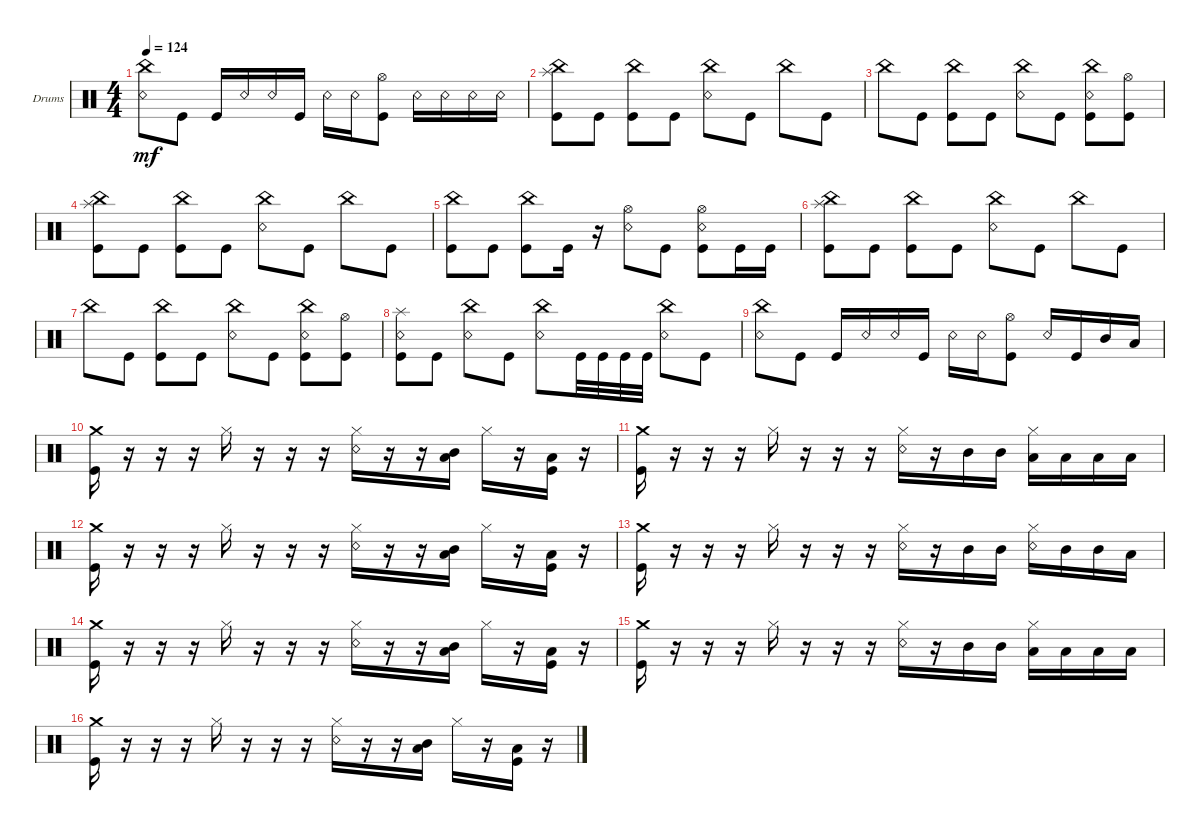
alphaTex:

\defaultSystemsLayout 4
\bracketExtendMode groupsimilarinstruments
\firstSystemTrackNameOrientation horizontal
\otherSystemsTrackNameOrientation horizontal
\track ("Drums" "Drums") {instrument percussion}
\staff {score}
\articulation defaults
\ts (4 4)
\tempo 124
\clef neutral
\ks c
("Snare (rim shot)" "China (hit)").8{dy mf} "Kick (hit)".8 "Kick (hit)".16 "Snare (rim shot)".16 "Snare (rim shot)".16 "Kick (hit)".16 "Snare (rim shot)".16 "Snare (rim shot)".16 ("Kick (hit)" "Hi-Hat (open)").8 "Snare (rim shot)".16 "Snare (rim shot)".16 "Snare (rim shot)".16 "Snare (rim shot)".16 |
("Kick (hit)" "China (hit)" "Splash (hit)").8 "Kick (hit)".8 ("Kick (hit)" "China (hit)").8 "Kick (hit)".8 ("Snare (rim shot)" "China (hit)").8 "Kick (hit)".8 "China (hit)".8 "Kick (hit)".8 |
"China (hit)".8 "Kick (hit)".8 ("Kick (hit)" "China (hit)").8 "Kick (hit)".8 ("Snare (rim shot)" "China (hit)").8 "Kick (hit)".8 ("Kick (hit)" "China (hit)" "Snare (rim shot)").8 ("Kick (hit)" "Hi-Hat (open)").8 |
("Kick (hit)" "China (hit)" "Splash (hit)").8 "Kick (hit)".8 ("Kick (hit)" "China (hit)").8 "Kick (hit)".8 ("Snare (rim shot)" "China (hit)").8 "Kick (hit)".8 "China (hit)".8 "Kick (hit)".8 |
("Kick (hit)" "China (hit)").8 "Kick (hit)".8 ("Kick (hit)" "China (hit)").8 "Kick (hit)".16 r.16 ("Snare (rim shot)" "Hi-Hat (open)").8 "Kick (hit)".8 ("Kick (hit)" "Snare (rim shot)" "Hi-Hat (open)").8 "Kick (hit)".16 "Kick (hit)".16 |
("Kick (hit)" "China (hit)" "Splash (hit)").8 "Kick (hit)".8 ("Kick (hit)" "China (hit)").8 "Kick (hit)".8 ("Snare (rim shot)" "China (hit)").8 "Kick (hit)".8 "China (hit)".8 "Kick (hit)".8 |
"China (hit)".8 "Kick (hit)".8 ("Kick (hit)" "China (hit)").8 "Kick (hit)".8 ("Snare (rim shot)" "China (hit)").8 "Kick (hit)".8 ("Kick (hit)" "China (hit)" "Snare (rim shot)").8 ("Kick (hit)" "Hi-Hat (open)").8 |
("Snare (rim shot)" "Kick (hit)" "Splash (hit)").8 "Kick (hit)".8 ("Snare (rim shot)" "China (hit)").8 "Kick (hit)".8 ("Snare (rim shot)" "China (hit)").8 "Kick (hit)".32 "Kick (hit)".32 "Kick (hit)".32 "Kick (hit)".32 ("Snare (rim shot)" "China (hit)").8 "Kick (hit)".8 |
("Snare (rim shot)" "China (hit)").8 "Kick (hit)".8 "Kick (hit)".16 "Snare (rim shot)".16 "Snare (rim shot)".16 "Kick (hit)".16 "Snare (rim shot)".16 "Snare (rim shot)".16 ("Kick (hit)" "Hi-Hat (open)").8 "Snare (rim shot)".16 "Kick (hit)".16 "Mid Tom (hit)".16 "Low Tom (hit)".16 |
("Kick (hit)" "Crash medium (hit)").16 r.16 r.16 r.16 "Hi-Hat (closed)".16 r.16 r.16 r.16 ("Snare (rim shot)" "Hi-Hat (closed)").16 r.16 r.16 ("Mid Tom (hit)" "Low Tom (hit)").16 "Hi-Hat (closed)".16 r.16 ("Low Tom (hit)" "Kick (hit)").16 r.16 |
("Kick (hit)" "Crash medium (hit)").16 r.16 r.16 r.16 "Hi-Hat (closed)".16 r.16 r.16 r.16 ("Snare (rim shot)" "Hi-Hat (closed)").16 r.16 "Mid Tom (hit)".16 "Mid Tom (hit)".16 ("Low Tom (hit)" "Hi-Hat (closed)").16 "Low Tom (hit)".16 "Low Tom (hit)".16 "Low Tom (hit)".16 |
("Kick (hit)" "Crash medium (hit)").16 r.16 r.16 r.16 "Hi-Hat (closed)".16 r.16 r.16 r.16 ("Snare (rim shot)" "Hi-Hat (closed)").16 r.16 r.16 ("Mid Tom (hit)" "Low Tom (hit)").16 "Hi-Hat (closed)".16 r.16 ("Low Tom (hit)" "Kick (hit)").16 r.16 |
("Kick (hit)" "Crash medium (hit)").16 r.16 r.16 r.16 "Hi-Hat (closed)".16 r.16 r.16 r.16 ("Snare (rim shot)" "Hi-Hat (closed)").16 r.16 "Mid Tom (hit)".16 "Mid Tom (hit)".16 ("Hi-Hat (closed)" "Snare (rim shot)").16 "Mid Tom (hit)".16 "Mid Tom (hit)".16 "Low Tom (hit)".16 |
("Kick (hit)" "Crash medium (hit)").16 r.16 r.16 r.16 "Hi-Hat (closed)".16 r.16 r.16 r.16 ("Snare (rim shot)" "Hi-Hat (closed)").16 r.16 r.16 ("Mid Tom (hit)" "Low Tom (hit)").16 "Hi-Hat (closed)".16 r.16 ("Low Tom (hit)" "Kick (hit)").16 r.16 |
("Kick (hit)" "Crash medium (hit)").16 r.16 r.16 r.16 "Hi-Hat (closed)".16 r.16 r.16 r.16 ("Snare (rim shot)" "Hi-Hat (closed)").16 r.16 "Mid Tom (hit)".16 "Mid Tom (hit)".16 ("Low Tom (hit)" "Hi-Hat (closed)").16 "Low Tom (hit)".16 "Low Tom (hit)".16 "Low Tom (hit)".16 |
("Kick (hit)" "Crash medium (hit)").16 r.16 r.16 r.16 "Hi-Hat (closed)".16 r.16 r.16 r.16 ("Snare (rim shot)" "Hi-Hat (closed)").16 r.16 r.16 ("Mid Tom (hit)" "Low Tom (hit)").16 "Hi-Hat (closed)".16 r.16 ("Low Tom (hit)" "Kick (hit)").16 r.16
